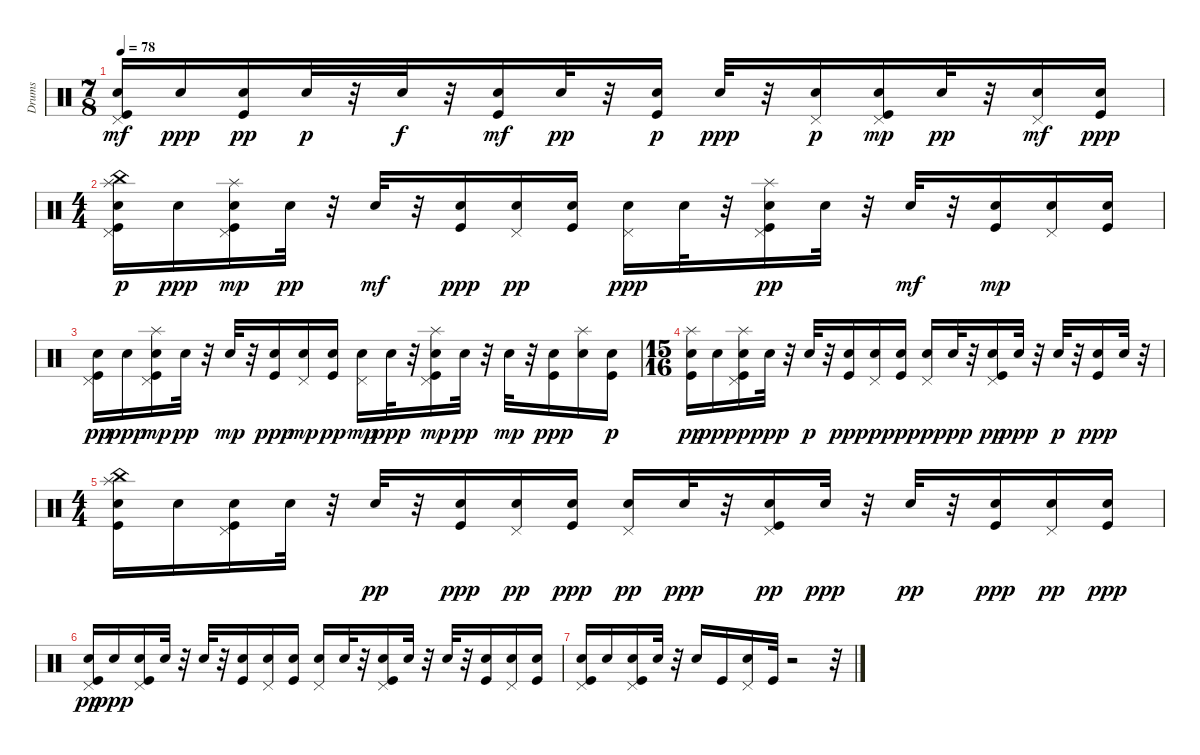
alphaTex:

\track ("Drums" "Drums") {instrument percussion}
\staff {score}
\articulation defaults
\ts (7 8)
\tempo 78
\clef neutral
\ks c
("Snare (hit) 2" "Kick (hit)" "Pedal Hi-Hat (hit)").16{dy mf} "Snare (hit) 2".16{dy ppp} ("Kick (hit)" "Snare (hit) 2").16{dy pp} "Snare (hit) 2".32{dy p} r.32 "Snare (hit) 2".32{dy f} r.32 ("Snare (hit) 2" "Kick (hit)").16{dy mf} "Snare (hit) 2".32{dy pp} r.32 ("Kick (hit)" "Snare (hit) 2").16{dy p} "Snare (hit) 2".32{dy ppp} r.32 ("Snare (hit) 2" "Pedal Hi-Hat (hit)").16{dy p} ("Pedal Hi-Hat (hit)" "Snare (hit) 2" "Kick (hit)").16{dy mp} "Snare (hit) 2".32{dy pp} r.32 ("Pedal Hi-Hat (hit)" "Snare (hit) 2").16{dy mf} ("Kick (hit)" "Snare (hit) 2").16{dy ppp} |
\ts (4 4)
("China (hit)" "Splash (hit)" "Pedal Hi-Hat (hit)" "Kick (hit)" "Snare (hit) 2").16{dy p} "Snare (hit) 2".16{dy ppp} ("Splash (hit)" "Pedal Hi-Hat (hit)" "Snare (hit) 2" "Kick (hit)").16{dy mp} "Snare (hit) 2".32{dy pp} r.32 "Snare (hit) 2".32{dy mf} r.32 ("Kick (hit)" "Snare (hit) 2").16{dy ppp} ("Pedal Hi-Hat (hit)" "Snare (hit) 2").16{dy pp} ("Kick (hit)" "Snare (hit) 2").16 ("Pedal Hi-Hat (hit)" "Snare (hit) 2").16{dy ppp} "Snare (hit) 2".32 r.32 ("Splash (hit)" "Pedal Hi-Hat (hit)" "Kick (hit)" "Snare (hit) 2").16{dy pp} "Snare (hit) 2".32 r.32 "Snare (hit) 2".32{dy mf} r.32 ("Snare (hit) 2" "Kick (hit)").16{dy mp} ("Snare (hit) 2" "Pedal Hi-Hat (hit)").16 ("Snare (hit) 2" "Kick (hit)").16 |
("Pedal Hi-Hat (hit)" "Kick (hit)" "Snare (hit) 2").16{dy pp} "Snare (hit) 2".16{dy ppp} ("Splash (hit)" "Snare (hit) 2" "Kick (hit)" "Pedal Hi-Hat (hit)").16{dy mp} "Snare (hit) 2".32{dy pp} r.32 "Snare (hit) 2".32{dy mp} r.32 ("Kick (hit)" "Snare (hit) 2").16{dy ppp} ("Snare (hit) 2" "Pedal Hi-Hat (hit)").16{dy mp} ("Kick (hit)" "Snare (hit) 2").16{dy pp} ("Snare (hit) 2" "Pedal Hi-Hat (hit)").16{dy mp} "Snare (hit) 2".32{dy ppp} r.32 ("Splash (hit)" "Snare (hit) 2" "Kick (hit)" "Pedal Hi-Hat (hit)").16{dy mp} "Snare (hit) 2".32{dy pp} r.32 "Snare (hit) 2".32{dy mp} r.32 ("Kick (hit)" "Snare (hit) 2").16{dy ppp} ("Splash (hit)" "Snare (hit) 2").16 ("Snare (hit) 2" "Kick (hit)").16{dy p} |
\ts (15 16)
("Splash (hit)" "Kick (hit)" "Snare (hit) 2").16{dy pp} "Snare (hit) 2".16{dy ppp} ("Splash (hit)" "Pedal Hi-Hat (hit)" "Snare (hit) 2" "Kick (hit)").16{dy p} "Snare (hit) 2".32{dy ppp} r.32 "Snare (hit) 2".32{dy p} r.32 ("Kick (hit)" "Snare (hit) 2").16{dy ppp} ("Snare (hit) 2" "Pedal Hi-Hat (hit)").16{dy p} ("Kick (hit)" "Snare (hit) 2").16{dy ppp} ("Snare (hit) 2" "Pedal Hi-Hat (hit)").16{dy p} "Snare (hit) 2".32{dy ppp} r.32 ("Snare (hit) 2" "Pedal Hi-Hat (hit)" "Kick (hit)").16{dy pp} "Snare (hit) 2".32{dy ppp} r.32 "Snare (hit) 2".32{dy p} r.32 ("Kick (hit)" "Snare (hit) 2").16{dy ppp} "Snare (hit) 2".32 r.32 |
\ts (4 4)
("China (hit)" "Splash (hit)" "Kick (hit)" "Snare (hit) 2").16 "Snare (hit) 2".16 ("Kick (hit)" "Pedal Hi-Hat (hit)" "Snare (hit) 2").16 "Snare (hit) 2".32 r.32 "Snare (hit) 2".32{dy pp} r.32 ("Kick (hit)" "Snare (hit) 2").16{dy ppp} ("Snare (hit) 2" "Pedal Hi-Hat (hit)").16{dy pp} ("Kick (hit)" "Snare (hit) 2").16{dy ppp} ("Snare (hit) 2" "Pedal Hi-Hat (hit)").16{dy pp} "Snare (hit) 2".32{dy ppp} r.32 ("Pedal Hi-Hat (hit)" "Snare (hit) 2" "Kick (hit)").16{dy pp} "Snare (hit) 2".32{dy ppp} r.32 "Snare (hit) 2".32{dy pp} r.32 ("Kick (hit)" "Snare (hit) 2").16{dy ppp} ("Snare (hit) 2" "Pedal Hi-Hat (hit)").16{dy pp} ("Snare (hit) 2" "Kick (hit)").16{dy ppp} |
("Snare (hit) 2" "Kick (hit)" "Pedal Hi-Hat (hit)").16{dy pp} "Snare (hit) 2".16{dy ppp} ("Snare (hit) 2" "Kick (hit)" "Pedal Hi-Hat (hit)").16 "Snare (hit) 2".32 r.32 "Snare (hit) 2".32 r.32 ("Snare (hit) 2" "Kick (hit)").16 ("Pedal Hi-Hat (hit)" "Snare (hit) 2").16 ("Snare (hit) 2" "Kick (hit)").16 ("Pedal Hi-Hat (hit)" "Snare (hit) 2").16 "Snare (hit) 2".32 r.32 ("Kick (hit)" "Snare (hit) 2" "Pedal Hi-Hat (hit)").16 "Snare (hit) 2".32 r.32 "Snare (hit) 2".32 r.32 ("Kick (hit)" "Snare (hit) 2").16 ("Snare (hit) 2" "Pedal Hi-Hat (hit)").16 ("Kick (hit)" "Snare (hit) 2").16 |
("Kick (hit)" "Pedal Hi-Hat (hit)" "Snare (hit) 2").16 "Snare (hit) 2".16 ("Pedal Hi-Hat (hit)" "Snare (hit) 2" "Kick (hit)").16 "Snare (hit) 2".32 r.32 "Snare (hit) 2".16 "Kick (hit)".16 ("Pedal Hi-Hat (hit)" "Snare (hit) 2").16 "Kick (hit)".32 r.2 r.32
